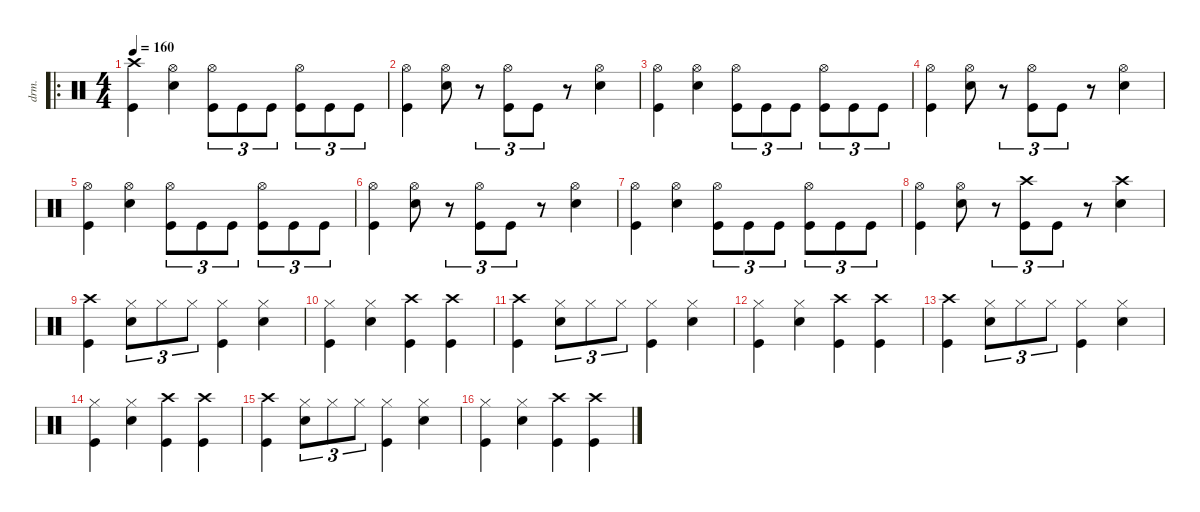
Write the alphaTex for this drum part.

\defaultSystemsLayout 4
\hideDynamics
\bracketExtendMode nobrackets
\otherSystemsTrackNameOrientation horizontal
\track ("Nick Menza" "drm.") {defaultSystemsLayout 4 instrument percussion}
\staff {score}
\articulation defaults
\ro
\ts (4 4)
\tempo 160
\clef neutral
\ks c
("Crash high (hit)" "Kick (hit)").4{dy f beam Down} ("Hi-Hat (open)" "Snare (hit) 2").4{beam Down} ("Hi-Hat (open)" "Kick (hit)").8{tu (3 2) beam Down} "Kick (hit)".8{tu (3 2) beam Down} "Kick (hit)".8{tu (3 2) beam Down} ("Hi-Hat (open)" "Kick (hit)").8{tu (3 2) beam Down} "Kick (hit)".8{tu (3 2) beam Down} "Kick (hit)".8{tu (3 2) beam Down} |
("Hi-Hat (open)" "Kick (hit)").4{beam Down} ("Hi-Hat (open)" "Snare (hit) 2").8{beam Down} r.8{tu (3 2) beam Down} ("Hi-Hat (open)" "Kick (hit)").8{tu (3 2) beam Down} "Kick (hit)".8{tu (3 2) beam Down} r.8{beam Down} ("Hi-Hat (open)" "Snare (hit) 2").4{beam Down} |
("Hi-Hat (open)" "Kick (hit)").4{beam Down} ("Hi-Hat (open)" "Snare (hit) 2").4{beam Down} ("Hi-Hat (open)" "Kick (hit)").8{tu (3 2) beam Down} "Kick (hit)".8{tu (3 2) beam Down} "Kick (hit)".8{tu (3 2) beam Down} ("Hi-Hat (open)" "Kick (hit)").8{tu (3 2) beam Down} "Kick (hit)".8{tu (3 2) beam Down} "Kick (hit)".8{tu (3 2) beam Down} |
("Hi-Hat (open)" "Kick (hit)").4{beam Down} ("Hi-Hat (open)" "Snare (hit) 2").8{beam Down} r.8{tu (3 2) beam Down} ("Hi-Hat (open)" "Kick (hit)").8{tu (3 2) beam Down} "Kick (hit)".8{tu (3 2) beam Down} r.8{beam Down} ("Hi-Hat (open)" "Snare (hit) 2").4{beam Down} |
("Hi-Hat (open)" "Kick (hit)").4{beam Down} ("Hi-Hat (open)" "Snare (hit) 2").4{beam Down} ("Hi-Hat (open)" "Kick (hit)").8{tu (3 2) beam Down} "Kick (hit)".8{tu (3 2) beam Down} "Kick (hit)".8{tu (3 2) beam Down} ("Hi-Hat (open)" "Kick (hit)").8{tu (3 2) beam Down} "Kick (hit)".8{tu (3 2) beam Down} "Kick (hit)".8{tu (3 2) beam Down} |
("Hi-Hat (open)" "Kick (hit)").4{beam Down} ("Hi-Hat (open)" "Snare (hit) 2").8{beam Down} r.8{tu (3 2) beam Down} ("Hi-Hat (open)" "Kick (hit)").8{tu (3 2) beam Down} "Kick (hit)".8{tu (3 2) beam Down} r.8{beam Down} ("Hi-Hat (open)" "Snare (hit) 2").4{beam Down} |
("Hi-Hat (open)" "Kick (hit)").4{beam Down} ("Hi-Hat (open)" "Snare (hit) 2").4{beam Down} ("Hi-Hat (open)" "Kick (hit)").8{tu (3 2) beam Down} "Kick (hit)".8{tu (3 2) beam Down} "Kick (hit)".8{tu (3 2) beam Down} ("Hi-Hat (open)" "Kick (hit)").8{tu (3 2) beam Down} "Kick (hit)".8{tu (3 2) beam Down} "Kick (hit)".8{tu (3 2) beam Down} |
("Hi-Hat (open)" "Kick (hit)").4{beam Down} ("Hi-Hat (open)" "Snare (hit) 2").8{beam Down} r.8{tu (3 2) beam Down} ("Crash high (hit)" "Kick (hit)").8{tu (3 2) beam Down} "Kick (hit)".8{tu (3 2) beam Down} r.8{beam Down} ("Crash high (hit)" "Snare (hit) 2").4{beam Down} |
("Crash high (hit)" "Kick (hit)").4{beam Down} ("Hi-Hat (closed)" "Snare (hit) 2").8{tu (3 2) beam Down} "Hi-Hat (closed)".8{tu (3 2) beam Down} "Hi-Hat (closed)".8{tu (3 2) beam Down} ("Hi-Hat (closed)" "Kick (hit)").4{beam Down} ("Hi-Hat (closed)" "Snare (hit) 2").4{beam Down} |
("Hi-Hat (closed)" "Kick (hit)").4{beam Down} ("Hi-Hat (closed)" "Snare (hit) 2").4{beam Down} ("Crash high (hit)" "Kick (hit)").4{beam Down} ("Crash high (hit)" "Kick (hit)").4{beam Down} |
("Crash high (hit)" "Kick (hit)").4{beam Down} ("Hi-Hat (closed)" "Snare (hit) 2").8{tu (3 2) beam Down} "Hi-Hat (closed)".8{tu (3 2) beam Down} "Hi-Hat (closed)".8{tu (3 2) beam Down} ("Hi-Hat (closed)" "Kick (hit)").4{beam Down} ("Hi-Hat (closed)" "Snare (hit) 2").4{beam Down} |
("Hi-Hat (closed)" "Kick (hit)").4{beam Down} ("Hi-Hat (closed)" "Snare (hit) 2").4{beam Down} ("Crash high (hit)" "Kick (hit)").4{beam Down} ("Crash high (hit)" "Kick (hit)").4{beam Down} |
("Crash high (hit)" "Kick (hit)").4{beam Down} ("Hi-Hat (closed)" "Snare (hit) 2").8{tu (3 2) beam Down} "Hi-Hat (closed)".8{tu (3 2) beam Down} "Hi-Hat (closed)".8{tu (3 2) beam Down} ("Hi-Hat (closed)" "Kick (hit)").4{beam Down} ("Hi-Hat (closed)" "Snare (hit) 2").4{beam Down} |
("Hi-Hat (closed)" "Kick (hit)").4{beam Down} ("Hi-Hat (closed)" "Snare (hit) 2").4{beam Down} ("Crash high (hit)" "Kick (hit)").4{beam Down} ("Crash high (hit)" "Kick (hit)").4{beam Down} |
("Crash high (hit)" "Kick (hit)").4{beam Down} ("Hi-Hat (closed)" "Snare (hit) 2").8{tu (3 2) beam Down} "Hi-Hat (closed)".8{tu (3 2) beam Down} "Hi-Hat (closed)".8{tu (3 2) beam Down} ("Hi-Hat (closed)" "Kick (hit)").4{beam Down} ("Hi-Hat (closed)" "Snare (hit) 2").4{beam Down} |
("Hi-Hat (closed)" "Kick (hit)").4{beam Down} ("Hi-Hat (closed)" "Snare (hit) 2").4{beam Down} ("Crash high (hit)" "Kick (hit)").4{beam Down} ("Crash high (hit)" "Kick (hit)").4{beam Down}
